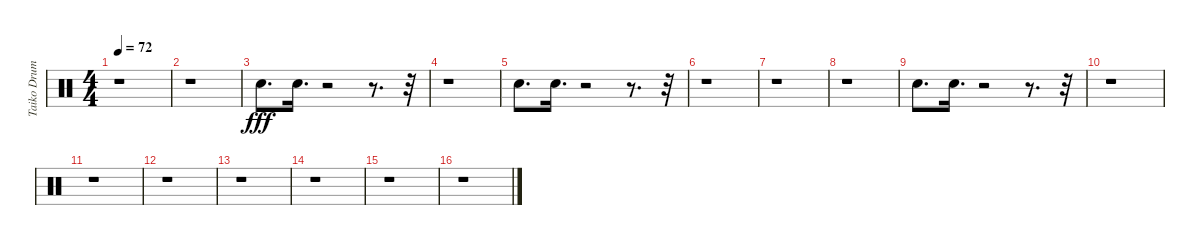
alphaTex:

\track ("Taiko Drum" "Taiko Drum") {instrument percussion}
\staff {score}
\articulation defaults
\ts (4 4)
\tempo 72
\clef neutral
\ks c
r.1{dy fff} |
r.1 |
"Snare (hit)".8{d} "Snare (hit)".16{d} r.2 r.8{d} r.32 |
r.1 |
"Snare (hit)".8{d} "Snare (hit)".16{d} r.2 r.8{d} r.32 |
r.1 |
r.1 |
r.1 |
"Snare (hit)".8{d} "Snare (hit)".16{d} r.2 r.8{d} r.32 |
r.1 |
r.1 |
r.1 |
r.1 |
r.1 |
r.1 |
r.1
